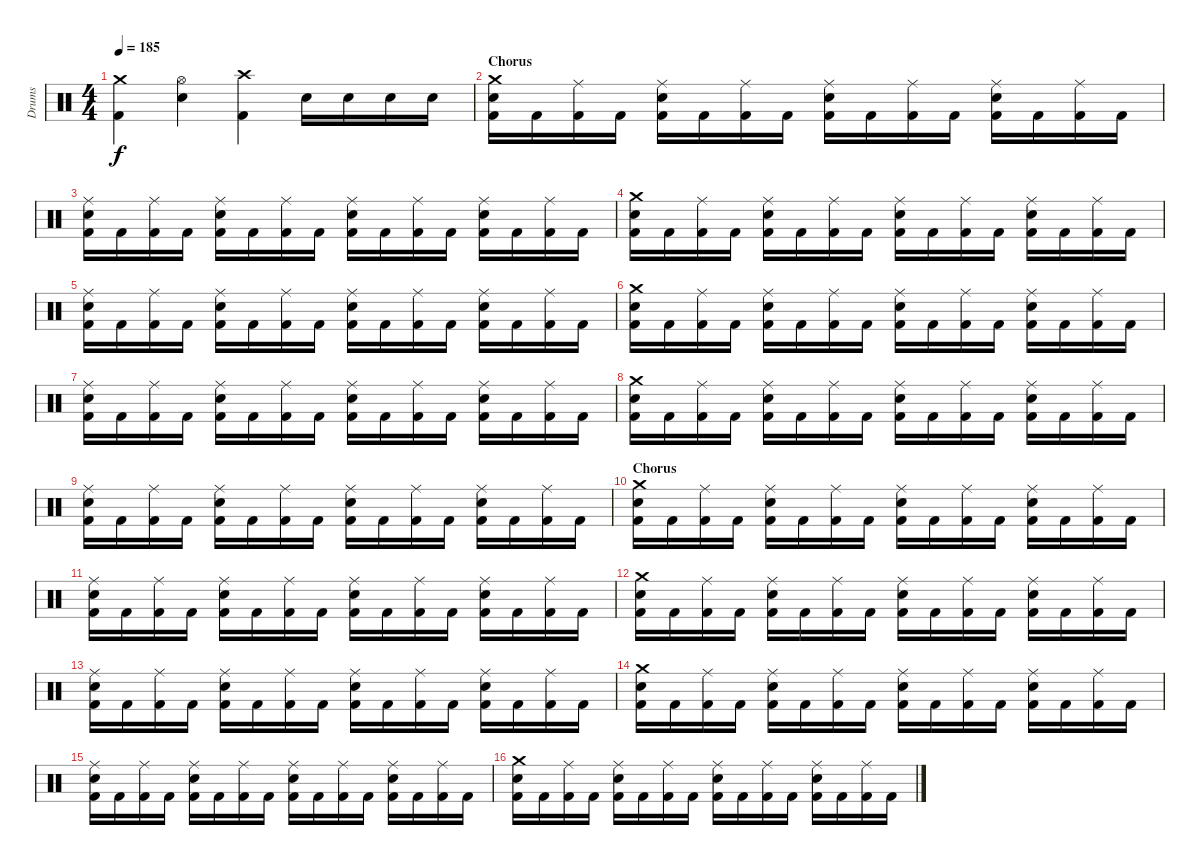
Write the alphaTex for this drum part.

\track ("Drums" "Drums") {instrument percussion}
\staff {score}
\articulation defaults
\ts (4 4)
\tempo 185
\clef neutral
\ks c
("Crash medium (hit)" "Kick (hit) 2").4{dy f} ("Hi-Hat (open)" "Electric Snare (hit)").4 ("Crash high (hit)" "Kick (hit) 2").4 "Electric Snare (hit)".16 "Electric Snare (hit)".16 "Electric Snare (hit)".16 "Electric Snare (hit)".16 |
\section ("" "Chorus")
("Crash medium (hit)" "Electric Snare (hit)" "Kick (hit) 2").16 "Kick (hit) 2".16 ("Ride (middle)" "Kick (hit) 2").16 "Kick (hit) 2".16 ("Ride (middle)" "Electric Snare (hit)" "Kick (hit) 2").16 "Kick (hit) 2".16 ("Ride (middle)" "Kick (hit) 2").16 "Kick (hit) 2".16 ("Ride (middle)" "Electric Snare (hit)" "Kick (hit) 2").16 "Kick (hit) 2".16 ("Ride (middle)" "Kick (hit) 2").16 "Kick (hit) 2".16 ("Ride (middle)" "Electric Snare (hit)" "Kick (hit) 2").16 "Kick (hit) 2".16 ("Ride (middle)" "Kick (hit) 2").16 "Kick (hit) 2".16 |
("Ride (middle)" "Electric Snare (hit)" "Kick (hit) 2").16 "Kick (hit) 2".16 ("Ride (middle)" "Kick (hit) 2").16 "Kick (hit) 2".16 ("Ride (middle)" "Electric Snare (hit)" "Kick (hit) 2").16 "Kick (hit) 2".16 ("Ride (middle)" "Kick (hit) 2").16 "Kick (hit) 2".16 ("Ride (middle)" "Electric Snare (hit)" "Kick (hit) 2").16 "Kick (hit) 2".16 ("Ride (middle)" "Kick (hit) 2").16 "Kick (hit) 2".16 ("Ride (middle)" "Electric Snare (hit)" "Kick (hit) 2").16 "Kick (hit) 2".16 ("Ride (middle)" "Kick (hit) 2").16 "Kick (hit) 2".16 |
("Crash medium (hit)" "Electric Snare (hit)" "Kick (hit) 2").16 "Kick (hit) 2".16 ("Ride (middle)" "Kick (hit) 2").16 "Kick (hit) 2".16 ("Ride (middle)" "Electric Snare (hit)" "Kick (hit) 2").16 "Kick (hit) 2".16 ("Ride (middle)" "Kick (hit) 2").16 "Kick (hit) 2".16 ("Ride (middle)" "Electric Snare (hit)" "Kick (hit) 2").16 "Kick (hit) 2".16 ("Ride (middle)" "Kick (hit) 2").16 "Kick (hit) 2".16 ("Ride (middle)" "Electric Snare (hit)" "Kick (hit) 2").16 "Kick (hit) 2".16 ("Ride (middle)" "Kick (hit) 2").16 "Kick (hit) 2".16 |
("Ride (middle)" "Electric Snare (hit)" "Kick (hit) 2").16 "Kick (hit) 2".16 ("Ride (middle)" "Kick (hit) 2").16 "Kick (hit) 2".16 ("Ride (middle)" "Electric Snare (hit)" "Kick (hit) 2").16 "Kick (hit) 2".16 ("Ride (middle)" "Kick (hit) 2").16 "Kick (hit) 2".16 ("Ride (middle)" "Electric Snare (hit)" "Kick (hit) 2").16 "Kick (hit) 2".16 ("Ride (middle)" "Kick (hit) 2").16 "Kick (hit) 2".16 ("Ride (middle)" "Electric Snare (hit)" "Kick (hit) 2").16 "Kick (hit) 2".16 ("Ride (middle)" "Kick (hit) 2").16 "Kick (hit) 2".16 |
("Crash medium (hit)" "Electric Snare (hit)" "Kick (hit) 2").16 "Kick (hit) 2".16 ("Ride (middle)" "Kick (hit) 2").16 "Kick (hit) 2".16 ("Ride (middle)" "Electric Snare (hit)" "Kick (hit) 2").16 "Kick (hit) 2".16 ("Ride (middle)" "Kick (hit) 2").16 "Kick (hit) 2".16 ("Ride (middle)" "Electric Snare (hit)" "Kick (hit) 2").16 "Kick (hit) 2".16 ("Ride (middle)" "Kick (hit) 2").16 "Kick (hit) 2".16 ("Ride (middle)" "Electric Snare (hit)" "Kick (hit) 2").16 "Kick (hit) 2".16 ("Ride (middle)" "Kick (hit) 2").16 "Kick (hit) 2".16 |
("Ride (middle)" "Electric Snare (hit)" "Kick (hit) 2").16 "Kick (hit) 2".16 ("Ride (middle)" "Kick (hit) 2").16 "Kick (hit) 2".16 ("Ride (middle)" "Electric Snare (hit)" "Kick (hit) 2").16 "Kick (hit) 2".16 ("Ride (middle)" "Kick (hit) 2").16 "Kick (hit) 2".16 ("Ride (middle)" "Electric Snare (hit)" "Kick (hit) 2").16 "Kick (hit) 2".16 ("Ride (middle)" "Kick (hit) 2").16 "Kick (hit) 2".16 ("Ride (middle)" "Electric Snare (hit)" "Kick (hit) 2").16 "Kick (hit) 2".16 ("Ride (middle)" "Kick (hit) 2").16 "Kick (hit) 2".16 |
("Crash medium (hit)" "Electric Snare (hit)" "Kick (hit) 2").16 "Kick (hit) 2".16 ("Ride (middle)" "Kick (hit) 2").16 "Kick (hit) 2".16 ("Ride (middle)" "Electric Snare (hit)" "Kick (hit) 2").16 "Kick (hit) 2".16 ("Ride (middle)" "Kick (hit) 2").16 "Kick (hit) 2".16 ("Ride (middle)" "Electric Snare (hit)" "Kick (hit) 2").16 "Kick (hit) 2".16 ("Ride (middle)" "Kick (hit) 2").16 "Kick (hit) 2".16 ("Ride (middle)" "Electric Snare (hit)" "Kick (hit) 2").16 "Kick (hit) 2".16 ("Ride (middle)" "Kick (hit) 2").16 "Kick (hit) 2".16 |
("Ride (middle)" "Electric Snare (hit)" "Kick (hit) 2").16 "Kick (hit) 2".16 ("Ride (middle)" "Kick (hit) 2").16 "Kick (hit) 2".16 ("Ride (middle)" "Electric Snare (hit)" "Kick (hit) 2").16 "Kick (hit) 2".16 ("Ride (middle)" "Kick (hit) 2").16 "Kick (hit) 2".16 ("Ride (middle)" "Electric Snare (hit)" "Kick (hit) 2").16 "Kick (hit) 2".16 ("Ride (middle)" "Kick (hit) 2").16 "Kick (hit) 2".16 ("Ride (middle)" "Electric Snare (hit)" "Kick (hit) 2").16 "Kick (hit) 2".16 ("Ride (middle)" "Kick (hit) 2").16 "Kick (hit) 2".16 |
\section ("" "Chorus")
("Crash medium (hit)" "Electric Snare (hit)" "Kick (hit) 2").16 "Kick (hit) 2".16 ("Ride (middle)" "Kick (hit) 2").16 "Kick (hit) 2".16 ("Ride (middle)" "Electric Snare (hit)" "Kick (hit) 2").16 "Kick (hit) 2".16 ("Ride (middle)" "Kick (hit) 2").16 "Kick (hit) 2".16 ("Ride (middle)" "Electric Snare (hit)" "Kick (hit) 2").16 "Kick (hit) 2".16 ("Ride (middle)" "Kick (hit) 2").16 "Kick (hit) 2".16 ("Ride (middle)" "Electric Snare (hit)" "Kick (hit) 2").16 "Kick (hit) 2".16 ("Ride (middle)" "Kick (hit) 2").16 "Kick (hit) 2".16 |
("Ride (middle)" "Electric Snare (hit)" "Kick (hit) 2").16 "Kick (hit) 2".16 ("Ride (middle)" "Kick (hit) 2").16 "Kick (hit) 2".16 ("Ride (middle)" "Electric Snare (hit)" "Kick (hit) 2").16 "Kick (hit) 2".16 ("Ride (middle)" "Kick (hit) 2").16 "Kick (hit) 2".16 ("Ride (middle)" "Electric Snare (hit)" "Kick (hit) 2").16 "Kick (hit) 2".16 ("Ride (middle)" "Kick (hit) 2").16 "Kick (hit) 2".16 ("Ride (middle)" "Electric Snare (hit)" "Kick (hit) 2").16 "Kick (hit) 2".16 ("Ride (middle)" "Kick (hit) 2").16 "Kick (hit) 2".16 |
("Crash medium (hit)" "Electric Snare (hit)" "Kick (hit) 2").16 "Kick (hit) 2".16 ("Ride (middle)" "Kick (hit) 2").16 "Kick (hit) 2".16 ("Ride (middle)" "Electric Snare (hit)" "Kick (hit) 2").16 "Kick (hit) 2".16 ("Ride (middle)" "Kick (hit) 2").16 "Kick (hit) 2".16 ("Ride (middle)" "Electric Snare (hit)" "Kick (hit) 2").16 "Kick (hit) 2".16 ("Ride (middle)" "Kick (hit) 2").16 "Kick (hit) 2".16 ("Ride (middle)" "Electric Snare (hit)" "Kick (hit) 2").16 "Kick (hit) 2".16 ("Ride (middle)" "Kick (hit) 2").16 "Kick (hit) 2".16 |
("Ride (middle)" "Electric Snare (hit)" "Kick (hit) 2").16 "Kick (hit) 2".16 ("Ride (middle)" "Kick (hit) 2").16 "Kick (hit) 2".16 ("Ride (middle)" "Electric Snare (hit)" "Kick (hit) 2").16 "Kick (hit) 2".16 ("Ride (middle)" "Kick (hit) 2").16 "Kick (hit) 2".16 ("Ride (middle)" "Electric Snare (hit)" "Kick (hit) 2").16 "Kick (hit) 2".16 ("Ride (middle)" "Kick (hit) 2").16 "Kick (hit) 2".16 ("Ride (middle)" "Electric Snare (hit)" "Kick (hit) 2").16 "Kick (hit) 2".16 ("Ride (middle)" "Kick (hit) 2").16 "Kick (hit) 2".16 |
("Crash medium (hit)" "Electric Snare (hit)" "Kick (hit) 2").16 "Kick (hit) 2".16 ("Ride (middle)" "Kick (hit) 2").16 "Kick (hit) 2".16 ("Ride (middle)" "Electric Snare (hit)" "Kick (hit) 2").16 "Kick (hit) 2".16 ("Ride (middle)" "Kick (hit) 2").16 "Kick (hit) 2".16 ("Ride (middle)" "Electric Snare (hit)" "Kick (hit) 2").16 "Kick (hit) 2".16 ("Ride (middle)" "Kick (hit) 2").16 "Kick (hit) 2".16 ("Ride (middle)" "Electric Snare (hit)" "Kick (hit) 2").16 "Kick (hit) 2".16 ("Ride (middle)" "Kick (hit) 2").16 "Kick (hit) 2".16 |
("Ride (middle)" "Electric Snare (hit)" "Kick (hit) 2").16 "Kick (hit) 2".16 ("Ride (middle)" "Kick (hit) 2").16 "Kick (hit) 2".16 ("Ride (middle)" "Electric Snare (hit)" "Kick (hit) 2").16 "Kick (hit) 2".16 ("Ride (middle)" "Kick (hit) 2").16 "Kick (hit) 2".16 ("Ride (middle)" "Electric Snare (hit)" "Kick (hit) 2").16 "Kick (hit) 2".16 ("Ride (middle)" "Kick (hit) 2").16 "Kick (hit) 2".16 ("Ride (middle)" "Electric Snare (hit)" "Kick (hit) 2").16 "Kick (hit) 2".16 ("Ride (middle)" "Kick (hit) 2").16 "Kick (hit) 2".16 |
("Crash medium (hit)" "Electric Snare (hit)" "Kick (hit) 2").16 "Kick (hit) 2".16 ("Ride (middle)" "Kick (hit) 2").16 "Kick (hit) 2".16 ("Ride (middle)" "Electric Snare (hit)" "Kick (hit) 2").16 "Kick (hit) 2".16 ("Ride (middle)" "Kick (hit) 2").16 "Kick (hit) 2".16 ("Ride (middle)" "Electric Snare (hit)" "Kick (hit) 2").16 "Kick (hit) 2".16 ("Ride (middle)" "Kick (hit) 2").16 "Kick (hit) 2".16 ("Ride (middle)" "Electric Snare (hit)" "Kick (hit) 2").16 "Kick (hit) 2".16 ("Ride (middle)" "Kick (hit) 2").16 "Kick (hit) 2".16
